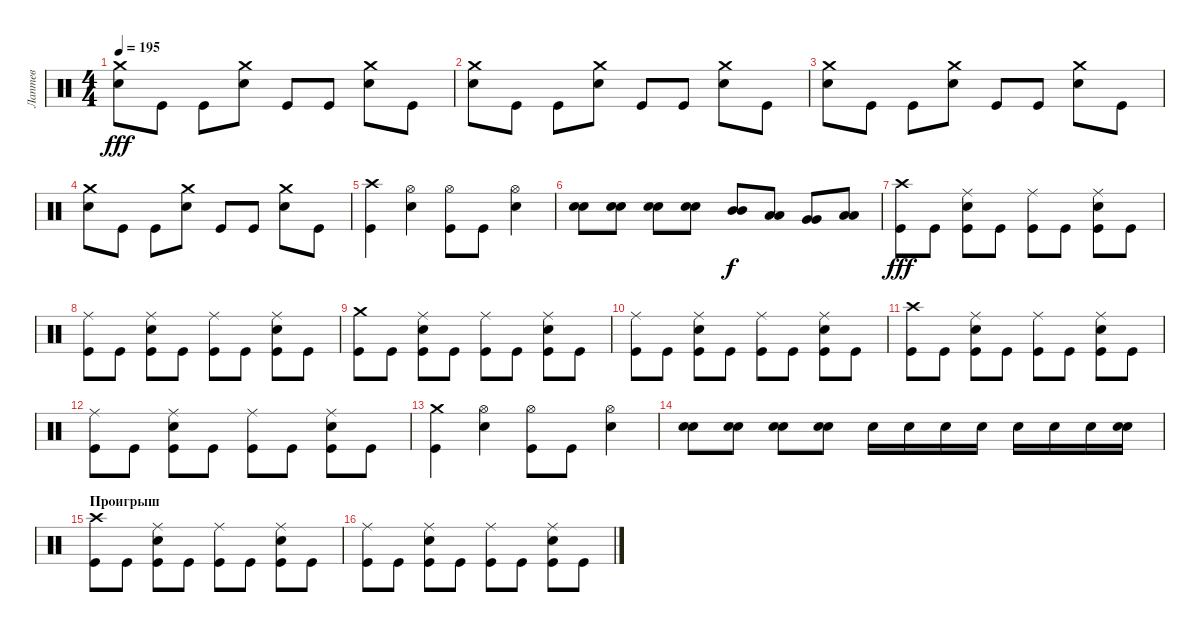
\track ("Лаптев" "Лаптев") {instrument percussion}
\staff {score}
\articulation defaults
\ts (4 4)
\tempo 195
\clef neutral
\ks c
("Crash medium (hit)" "Electric Snare (hit)").8{dy fff} "Kick (hit)".8 "Kick (hit)".8 ("Crash medium (hit)" "Electric Snare (hit)").8 "Kick (hit)".8 "Kick (hit)".8 ("Crash medium (hit)" "Electric Snare (hit)").8 "Kick (hit)".8 |
("Crash medium (hit)" "Electric Snare (hit)").8 "Kick (hit)".8 "Kick (hit)".8 ("Crash medium (hit)" "Electric Snare (hit)").8 "Kick (hit)".8 "Kick (hit)".8 ("Crash medium (hit)" "Electric Snare (hit)").8 "Kick (hit)".8 |
("Crash medium (hit)" "Electric Snare (hit)").8 "Kick (hit)".8 "Kick (hit)".8 ("Crash medium (hit)" "Electric Snare (hit)").8 "Kick (hit)".8 "Kick (hit)".8 ("Crash medium (hit)" "Electric Snare (hit)").8 "Kick (hit)".8 |
("Crash medium (hit)" "Electric Snare (hit)").8 "Kick (hit)".8 "Kick (hit)".8 ("Crash medium (hit)" "Electric Snare (hit)").8 "Kick (hit)".8 "Kick (hit)".8 ("Crash medium (hit)" "Electric Snare (hit)").8 "Kick (hit)".8 |
("Crash high (hit)" "Kick (hit)").4 ("Hi-Hat (open)" "Electric Snare (hit)").4 ("Hi-Hat (open)" "Kick (hit)").8 "Kick (hit)".8 ("Hi-Hat (open)" "Electric Snare (hit)").4 |
("Electric Snare (hit)" "Electric Snare (hit)").8 ("Electric Snare (hit)" "Electric Snare (hit)").8 ("Electric Snare (hit)" "Electric Snare (hit)").8 ("Electric Snare (hit)" "Electric Snare (hit)").8 ("Mid Tom (hit)" "Mid Tom (hit)").8{dy f} ("Low Tom (hit)" "Low Tom (hit)").8 ("Very Low Tom (hit)" "Very Low Tom (hit)").8 ("Low Floor Tom (hit)" "Low Floor Tom (hit)").8 |
("Crash high (hit)" "Kick (hit)").8{dy fff} "Kick (hit)".8 ("Ride (middle)" "Electric Snare (hit)" "Kick (hit)").8 "Kick (hit)".8 ("Ride (middle)" "Kick (hit)").8 "Kick (hit)".8 ("Ride (middle)" "Electric Snare (hit)" "Kick (hit)").8 "Kick (hit)".8 |
("Ride (middle)" "Kick (hit)").8 "Kick (hit)".8 ("Ride (middle)" "Electric Snare (hit)" "Kick (hit)").8 "Kick (hit)".8 ("Ride (middle)" "Kick (hit)").8 "Kick (hit)".8 ("Ride (middle)" "Electric Snare (hit)" "Kick (hit)").8 "Kick (hit)".8 |
("Crash medium (hit)" "Kick (hit)").8 "Kick (hit)".8 ("Ride (middle)" "Electric Snare (hit)" "Kick (hit)").8 "Kick (hit)".8 ("Ride (middle)" "Kick (hit)").8 "Kick (hit)".8 ("Ride (middle)" "Electric Snare (hit)" "Kick (hit)").8 "Kick (hit)".8 |
("Ride (middle)" "Kick (hit)").8 "Kick (hit)".8 ("Ride (middle)" "Electric Snare (hit)" "Kick (hit)").8 "Kick (hit)".8 ("Ride (middle)" "Kick (hit)").8 "Kick (hit)".8 ("Ride (middle)" "Electric Snare (hit)" "Kick (hit)").8 "Kick (hit)".8 |
("Crash high (hit)" "Kick (hit)").8 "Kick (hit)".8 ("Ride (middle)" "Electric Snare (hit)" "Kick (hit)").8 "Kick (hit)".8 ("Ride (middle)" "Kick (hit)").8 "Kick (hit)".8 ("Ride (middle)" "Electric Snare (hit)" "Kick (hit)").8 "Kick (hit)".8 |
("Ride (middle)" "Kick (hit)").8 "Kick (hit)".8 ("Ride (middle)" "Electric Snare (hit)" "Kick (hit)").8 "Kick (hit)".8 ("Ride (middle)" "Kick (hit)").8 "Kick (hit)".8 ("Ride (middle)" "Electric Snare (hit)" "Kick (hit)").8 "Kick (hit)".8 |
("Crash medium (hit)" "Kick (hit)").4 ("Hi-Hat (open)" "Electric Snare (hit)").4 ("Hi-Hat (open)" "Kick (hit)").8 "Kick (hit)".8 ("Hi-Hat (open)" "Electric Snare (hit)").4 |
("Electric Snare (hit)" "Electric Snare (hit)").8 ("Electric Snare (hit)" "Electric Snare (hit)").8 ("Electric Snare (hit)" "Electric Snare (hit)").8 ("Electric Snare (hit)" "Electric Snare (hit)").8 "Electric Snare (hit)".16 "Electric Snare (hit)".16 "Electric Snare (hit)".16 "Electric Snare (hit)".16 "Electric Snare (hit)".16 "Electric Snare (hit)".16 "Electric Snare (hit)".16 ("Electric Snare (hit)" "Electric Snare (hit)").16 |
\section ("" "Проигрыш")
("Crash high (hit)" "Kick (hit)").8 "Kick (hit)".8 ("Ride (middle)" "Electric Snare (hit)" "Kick (hit)").8 "Kick (hit)".8 ("Ride (middle)" "Kick (hit)").8 "Kick (hit)".8 ("Ride (middle)" "Electric Snare (hit)" "Kick (hit)").8 "Kick (hit)".8 |
("Ride (middle)" "Kick (hit)").8 "Kick (hit)".8 ("Ride (middle)" "Electric Snare (hit)" "Kick (hit)").8 "Kick (hit)".8 ("Ride (middle)" "Kick (hit)").8 "Kick (hit)".8 ("Ride (middle)" "Electric Snare (hit)" "Kick (hit)").8 "Kick (hit)".8
